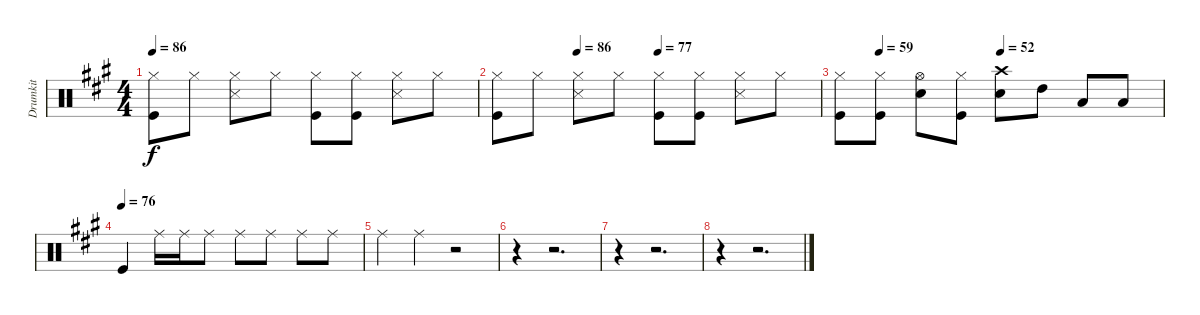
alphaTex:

\track ("Drumkit" "Drumkit") {instrument percussion}
\staff {score}
\articulation defaults
\ts (4 4)
\tempo 86
\clef neutral
\ks a
("Kick (hit)" "Hi-Hat (closed)").8{dy f} "Hi-Hat (closed)".8 ("Hi-Hat (closed)" "Snare (side stick) 3").8 "Hi-Hat (closed)".8 ("Kick (hit)" "Hi-Hat (closed)").8 ("Kick (hit)" "Hi-Hat (closed)").8 ("Snare (side stick) 3" "Hi-Hat (closed)").8 "Hi-Hat (closed)".8 |
\tempo (86 0.25)
\tempo (77 0.5)
("Kick (hit)" "Hi-Hat (closed)").8 "Hi-Hat (closed)".8 ("Hi-Hat (closed)" "Snare (side stick) 3").8 "Hi-Hat (closed)".8 ("Kick (hit)" "Hi-Hat (closed)").8 ("Kick (hit)" "Hi-Hat (closed)").8 ("Snare (side stick) 3" "Hi-Hat (closed)").8 "Hi-Hat (closed)".8 |
\tempo (59 0.125)
\tempo (52 0.5)
("Kick (hit)" "Hi-Hat (closed)").8 ("Kick (hit)" "Hi-Hat (closed)").8 ("Snare (hit) 2" "Hi-Hat (open)").8 ("Kick (hit)" "Hi-Hat (closed)").8 ("Snare (hit) 2" "Crash high (hit)").8 "High Tom (hit)".8 "Low Tom (hit)".8 "Low Floor Tom (hit)".8 |
\tempo (76)
"Kick (hit)".4 "Ride (middle)".16 "Ride (middle)".16 "Ride (middle)".8 "Ride (middle)".8 "Ride (middle)".8 "Ride (middle)".8 "Ride (middle)".8 |
"Ride (middle)".4 "Ride (middle)".4 r.2 |
r.4 r.2{d} |
r.4 r.2{d} |
r.4 r.2{d}
